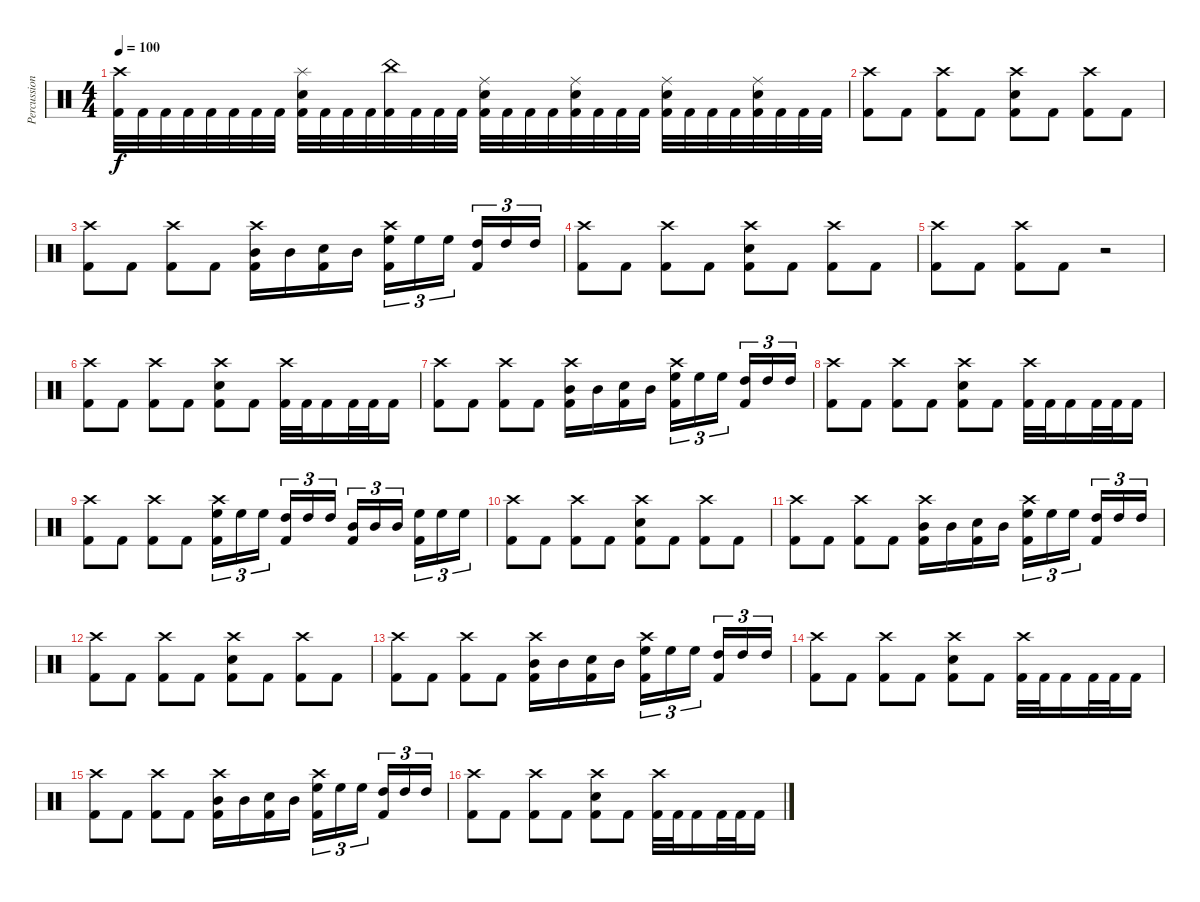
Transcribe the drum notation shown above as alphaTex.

\track ("Percussion" "Percussion") {instrument percussion}
\staff {score}
\articulation defaults
\ts (4 4)
\tempo 100
\clef neutral
\ks c
("Crash high (hit)" "Kick (hit) 2").32{dy f} "Kick (hit) 2".32 "Kick (hit) 2".32 "Kick (hit) 2".32 "Kick (hit) 2".32 "Kick (hit) 2".32 "Kick (hit) 2".32 "Kick (hit) 2".32 ("Splash (hit)" "Snare (hit) 2" "Kick (hit) 2").32 "Kick (hit) 2".32 "Kick (hit) 2".32 "Kick (hit) 2".32 ("China (hit)" "Kick (hit) 2").32 "Kick (hit) 2".32 "Kick (hit) 2".32 "Kick (hit) 2".32 ("Ride (middle)" "Snare (hit) 2" "Kick (hit) 2").32 "Kick (hit) 2".32 "Kick (hit) 2".32 "Kick (hit) 2".32 ("Ride (middle)" "Snare (hit) 2" "Kick (hit) 2").32 "Kick (hit) 2".32 "Kick (hit) 2".32 "Kick (hit) 2".32 ("Ride (middle)" "Snare (hit) 2" "Kick (hit) 2").32 "Kick (hit) 2".32 "Kick (hit) 2".32 "Kick (hit) 2".32 ("Ride (middle)" "Snare (hit) 2" "Kick (hit) 2").32 "Kick (hit) 2".32 "Kick (hit) 2".32 "Kick (hit) 2".32 |
("Crash high (hit)" "Kick (hit) 2").8 "Kick (hit) 2".8 ("Crash high (hit)" "Kick (hit) 2").8 "Kick (hit) 2".8 ("Crash high (hit)" "Snare (hit) 2" "Kick (hit) 2").8 "Kick (hit) 2".8 ("Crash high (hit)" "Kick (hit) 2").8 "Kick (hit) 2".8 |
("Crash high (hit)" "Kick (hit) 2").8 "Kick (hit) 2".8 ("Crash high (hit)" "Kick (hit) 2").8 "Kick (hit) 2".8 ("Crash high (hit)" "Mid Tom (hit)" "Kick (hit) 2").16 "Mid Tom (hit)".16 ("Snare (hit) 2" "Kick (hit) 2").16 "Mid Tom (hit)".16 ("Crash high (hit)" "High Floor Tom (hit)" "Kick (hit) 2").16{tu (3 2)} "High Floor Tom (hit)".16{tu (3 2)} "High Floor Tom (hit)".16{tu (3 2) beam splitsecondary} ("High Tom (hit)" "Kick (hit) 2").16{tu (3 2)} "High Tom (hit)".16{tu (3 2)} "High Tom (hit)".16{tu (3 2)} |
("Crash high (hit)" "Kick (hit) 2").8 "Kick (hit) 2".8 ("Crash high (hit)" "Kick (hit) 2").8 "Kick (hit) 2".8 ("Crash high (hit)" "Snare (hit) 2" "Kick (hit) 2").8 "Kick (hit) 2".8 ("Crash high (hit)" "Kick (hit) 2").8 "Kick (hit) 2".8 |
("Crash high (hit)" "Kick (hit) 2").8 "Kick (hit) 2".8 ("Crash high (hit)" "Kick (hit) 2").8 "Kick (hit) 2".8 r.2 |
("Crash high (hit)" "Kick (hit) 2").8 "Kick (hit) 2".8 ("Crash high (hit)" "Kick (hit) 2").8 "Kick (hit) 2".8 ("Crash high (hit)" "Snare (hit) 2" "Kick (hit) 2").8 "Kick (hit) 2".8 ("Crash high (hit)" "Kick (hit) 2").32 "Kick (hit) 2".32 "Kick (hit) 2".16 "Kick (hit) 2".32 "Kick (hit) 2".32 "Kick (hit) 2".16 |
("Crash high (hit)" "Kick (hit) 2").8 "Kick (hit) 2".8 ("Crash high (hit)" "Kick (hit) 2").8 "Kick (hit) 2".8 ("Crash high (hit)" "Mid Tom (hit)" "Kick (hit) 2").16 "Mid Tom (hit)".16 ("Snare (hit) 2" "Kick (hit) 2").16 "Mid Tom (hit)".16 ("Crash high (hit)" "High Floor Tom (hit)" "Kick (hit) 2").16{tu (3 2)} "High Floor Tom (hit)".16{tu (3 2)} "High Floor Tom (hit)".16{tu (3 2) beam splitsecondary} ("High Tom (hit)" "Kick (hit) 2").16{tu (3 2)} "High Tom (hit)".16{tu (3 2)} "High Tom (hit)".16{tu (3 2)} |
("Crash high (hit)" "Kick (hit) 2").8 "Kick (hit) 2".8 ("Crash high (hit)" "Kick (hit) 2").8 "Kick (hit) 2".8 ("Crash high (hit)" "Snare (hit) 2" "Kick (hit) 2").8 "Kick (hit) 2".8 ("Crash high (hit)" "Kick (hit) 2").32 "Kick (hit) 2".32 "Kick (hit) 2".16 "Kick (hit) 2".32 "Kick (hit) 2".32 "Kick (hit) 2".16 |
("Crash high (hit)" "Kick (hit) 2").8 "Kick (hit) 2".8 ("Crash high (hit)" "Kick (hit) 2").8 "Kick (hit) 2".8 ("Crash high (hit)" "High Floor Tom (hit)" "Kick (hit) 2").16{tu (3 2)} "High Floor Tom (hit)".16{tu (3 2)} "High Floor Tom (hit)".16{tu (3 2) beam splitsecondary} ("High Tom (hit)" "Kick (hit) 2").16{tu (3 2)} "High Tom (hit)".16{tu (3 2)} "High Tom (hit)".16{tu (3 2)} ("Mid Tom (hit)" "Kick (hit) 2").16{tu (3 2)} "Mid Tom (hit)".16{tu (3 2)} "Mid Tom (hit)".16{tu (3 2) beam splitsecondary} ("High Floor Tom (hit)" "Kick (hit) 2").16{tu (3 2)} "High Floor Tom (hit)".16{tu (3 2)} "High Floor Tom (hit)".16{tu (3 2)} |
("Crash high (hit)" "Kick (hit) 2").8 "Kick (hit) 2".8 ("Crash high (hit)" "Kick (hit) 2").8 "Kick (hit) 2".8 ("Crash high (hit)" "Snare (hit) 2" "Kick (hit) 2").8 "Kick (hit) 2".8 ("Crash high (hit)" "Kick (hit) 2").8 "Kick (hit) 2".8 |
("Crash high (hit)" "Kick (hit) 2").8 "Kick (hit) 2".8 ("Crash high (hit)" "Kick (hit) 2").8 "Kick (hit) 2".8 ("Crash high (hit)" "Mid Tom (hit)" "Kick (hit) 2").16 "Mid Tom (hit)".16 ("Snare (hit) 2" "Kick (hit) 2").16 "Mid Tom (hit)".16 ("Crash high (hit)" "High Floor Tom (hit)" "Kick (hit) 2").16{tu (3 2)} "High Floor Tom (hit)".16{tu (3 2)} "High Floor Tom (hit)".16{tu (3 2) beam splitsecondary} ("High Tom (hit)" "Kick (hit) 2").16{tu (3 2)} "High Tom (hit)".16{tu (3 2)} "High Tom (hit)".16{tu (3 2)} |
("Crash high (hit)" "Kick (hit) 2").8 "Kick (hit) 2".8 ("Crash high (hit)" "Kick (hit) 2").8 "Kick (hit) 2".8 ("Crash high (hit)" "Snare (hit) 2" "Kick (hit) 2").8 "Kick (hit) 2".8 ("Crash high (hit)" "Kick (hit) 2").8 "Kick (hit) 2".8 |
("Crash high (hit)" "Kick (hit) 2").8 "Kick (hit) 2".8 ("Crash high (hit)" "Kick (hit) 2").8 "Kick (hit) 2".8 ("Crash high (hit)" "Mid Tom (hit)" "Kick (hit) 2").16 "Mid Tom (hit)".16 ("Snare (hit) 2" "Kick (hit) 2").16 "Mid Tom (hit)".16 ("Crash high (hit)" "High Floor Tom (hit)" "Kick (hit) 2").16{tu (3 2)} "High Floor Tom (hit)".16{tu (3 2)} "High Floor Tom (hit)".16{tu (3 2) beam splitsecondary} ("High Tom (hit)" "Kick (hit) 2").16{tu (3 2)} "High Tom (hit)".16{tu (3 2)} "High Tom (hit)".16{tu (3 2)} |
("Crash high (hit)" "Kick (hit) 2").8 "Kick (hit) 2".8 ("Crash high (hit)" "Kick (hit) 2").8 "Kick (hit) 2".8 ("Crash high (hit)" "Snare (hit) 2" "Kick (hit) 2").8 "Kick (hit) 2".8 ("Crash high (hit)" "Kick (hit) 2").32 "Kick (hit) 2".32 "Kick (hit) 2".16 "Kick (hit) 2".32 "Kick (hit) 2".32 "Kick (hit) 2".16 |
("Crash high (hit)" "Kick (hit) 2").8 "Kick (hit) 2".8 ("Crash high (hit)" "Kick (hit) 2").8 "Kick (hit) 2".8 ("Crash high (hit)" "Mid Tom (hit)" "Kick (hit) 2").16 "Mid Tom (hit)".16 ("Snare (hit) 2" "Kick (hit) 2").16 "Mid Tom (hit)".16 ("Crash high (hit)" "High Floor Tom (hit)" "Kick (hit) 2").16{tu (3 2)} "High Floor Tom (hit)".16{tu (3 2)} "High Floor Tom (hit)".16{tu (3 2) beam splitsecondary} ("High Tom (hit)" "Kick (hit) 2").16{tu (3 2)} "High Tom (hit)".16{tu (3 2)} "High Tom (hit)".16{tu (3 2)} |
("Crash high (hit)" "Kick (hit) 2").8 "Kick (hit) 2".8 ("Crash high (hit)" "Kick (hit) 2").8 "Kick (hit) 2".8 ("Crash high (hit)" "Snare (hit) 2" "Kick (hit) 2").8 "Kick (hit) 2".8 ("Crash high (hit)" "Kick (hit) 2").32 "Kick (hit) 2".32 "Kick (hit) 2".16 "Kick (hit) 2".32 "Kick (hit) 2".32 "Kick (hit) 2".16
